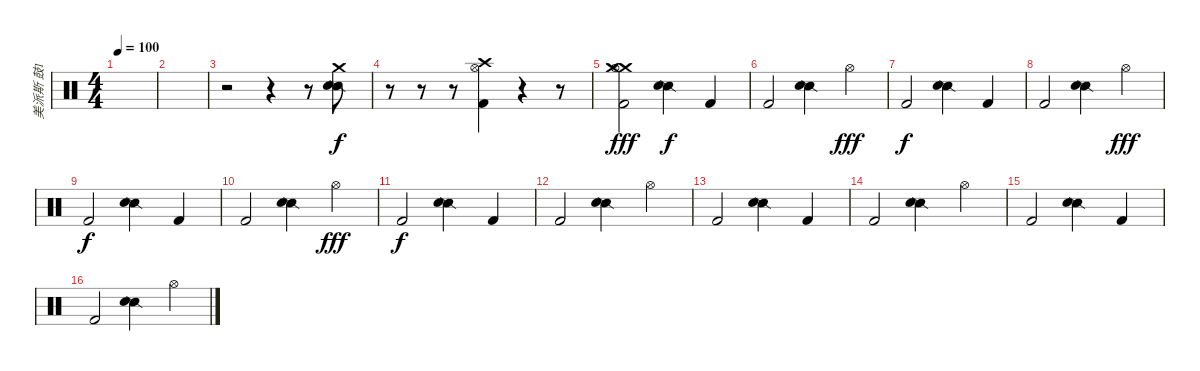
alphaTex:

\track ("美派斯 鼓1" "美派斯 鼓1") {instrument percussion}
\staff {score}
\articulation defaults
\ts (4 4)
\tempo 100
\clef neutral
\ks c
|
|
r.2 r.4 r.8 ("Crash medium (hit)" "Snare (side stick) 2" "Snare (hit) 2").8 |
r.8 r.8 r.8 ("Kick (hit) 2" "Crash high (hit)" "Hi-Hat (open)").4{dy f} r.4 r.8 |
("Crash medium (hit)" "Crash medium (hit)" "Kick (hit) 2" "Hi-Hat (open)").2{dy fff} ("Snare (side stick) 2" "Snare (hit) 2").4{dy f} "Kick (hit) 2".4 |
"Kick (hit) 2".2 ("Snare (side stick) 2" "Snare (hit) 2").4 "Hi-Hat (open)".4{dy fff} |
"Kick (hit) 2".2{dy f} ("Snare (side stick) 2" "Snare (hit) 2").4 "Kick (hit) 2".4 |
"Kick (hit) 2".2 ("Snare (side stick) 2" "Snare (hit) 2").4 "Hi-Hat (open)".4{dy fff} |
"Kick (hit) 2".2{dy f} ("Snare (side stick) 2" "Snare (hit) 2").4 "Kick (hit) 2".4 |
"Kick (hit) 2".2 ("Snare (side stick) 2" "Snare (hit) 2").4 "Hi-Hat (open)".4{dy fff} |
"Kick (hit) 2".2{dy f} ("Snare (side stick) 2" "Snare (hit) 2").4 "Kick (hit) 2".4 |
"Kick (hit) 2".2 ("Snare (side stick) 2" "Snare (hit) 2").4 "Hi-Hat (open)".4 |
"Kick (hit) 2".2 ("Snare (side stick) 2" "Snare (hit) 2").4 "Kick (hit) 2".4 |
"Kick (hit) 2".2 ("Snare (side stick) 2" "Snare (hit) 2").4 "Hi-Hat (open)".4 |
"Kick (hit) 2".2 ("Snare (side stick) 2" "Snare (hit) 2").4 "Kick (hit) 2".4 |
"Kick (hit) 2".2 ("Snare (side stick) 2" "Snare (hit) 2").4 "Hi-Hat (open)".4
